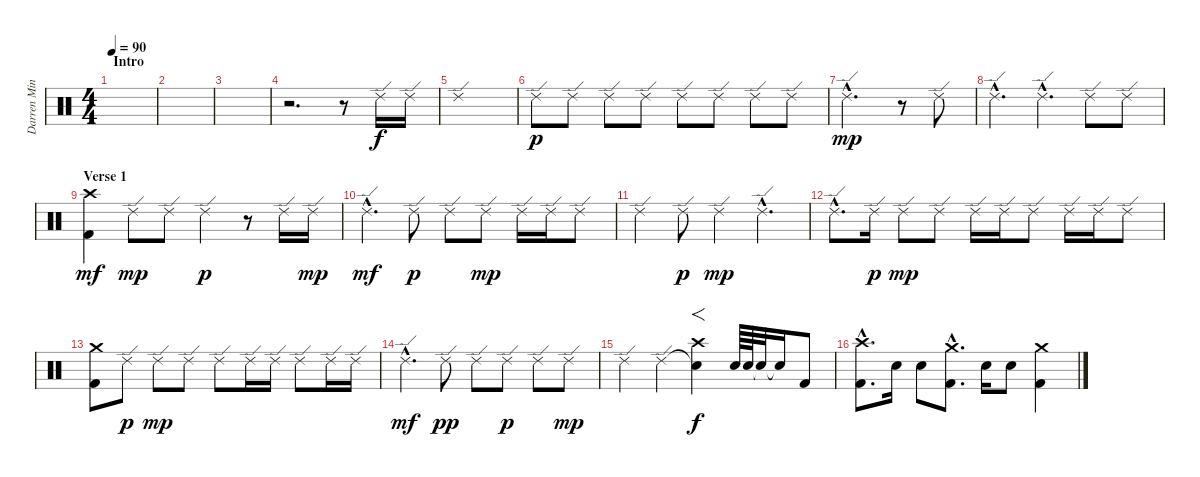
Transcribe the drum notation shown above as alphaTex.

\track ("Darren Minter" "Darren Min") {instrument percussion}
\staff {score}
\articulation defaults
\ts (4 4)
\section ("" "Intro")
\tempo 90
\clef neutral
\ks c
|
|
|
r.2{d} r.8 "Ride (edge) 2".16 "Ride (edge) 2".16 |
"Ride (edge) 2".1 |
"Ride (edge) 2".8{dy p} "Ride (edge) 2".8 "Ride (edge) 2".8 "Ride (edge) 2".8 "Ride (edge) 2".8 "Ride (edge) 2".8 "Ride (edge) 2".8 "Ride (edge) 2".8 |
"Ride (edge) 2"{hac}.2{d dy mp} r.8 "Ride (edge) 2".8 |
"Ride (edge) 2"{hac}.4{d} "Ride (edge) 2"{hac}.4{d} "Ride (edge) 2".8 "Ride (edge) 2".8 |
\section ("" "Verse 1")
("Kick (hit) 2" "Crash high (hit)").4{dy mf} "Ride (edge) 2".8{dy mp} "Ride (edge) 2".8 "Ride (edge) 2".4{dy p} r.8 "Ride (edge) 2".16 "Ride (edge) 2".16{dy mp} |
"Ride (edge) 2"{hac}.4{d dy mf} "Ride (edge) 2".8{dy p} "Ride (edge) 2".8 "Ride (edge) 2".8{dy mp} "Ride (edge) 2".16 "Ride (edge) 2".16 "Ride (edge) 2".8 |
"Ride (edge) 2".4 "Ride (edge) 2".8{dy p} "Ride (edge) 2".4{dy mp} "Ride (edge) 2"{hac}.4{d} |
"Ride (edge) 2"{hac}.8{d} "Ride (edge) 2".16{dy p} "Ride (edge) 2".8{dy mp} "Ride (edge) 2".8 "Ride (edge) 2".16 "Ride (edge) 2".16 "Ride (edge) 2".8 "Ride (edge) 2".16 "Ride (edge) 2".16 "Ride (edge) 2".8 |
("Kick (hit) 2" "Crash medium (hit)").8 "Ride (edge) 2".8{dy p} "Ride (edge) 2".8{dy mp} "Ride (edge) 2".8 "Ride (edge) 2".8 "Ride (edge) 2".16 "Ride (edge) 2".16 "Ride (edge) 2".8 "Ride (edge) 2".16 "Ride (edge) 2".16 |
"Ride (edge) 2"{hac}.4{d dy mf} "Ride (edge) 2".8{dy pp} "Ride (edge) 2".8 "Ride (edge) 2".8{dy p} "Ride (edge) 2".8 "Ride (edge) 2".8{dy mp} |
"Ride (edge) 2".4 "Ride (edge) 2".4 ("Snare (hit)"{t} "Crash high (hit)").4{f dy f} "Snare (hit) 2".64 "Snare (hit) 2".64 "Snare (hit)"{t}.32 "Snare (hit)"{t}.16 "Kick (hit) 2".8 |
("Kick (hit) 2"{hac} "Crash high (hit)"{hac}).8{d} "Snare (hit) 2".16 "Snare (hit) 2".8 ("Kick (hit) 2"{hac} "Crash medium (hit)"{hac}).8{d} "Snare (hit) 2".16 "Snare (hit) 2".8 ("Kick (hit) 2" "Crash medium (hit)").4
